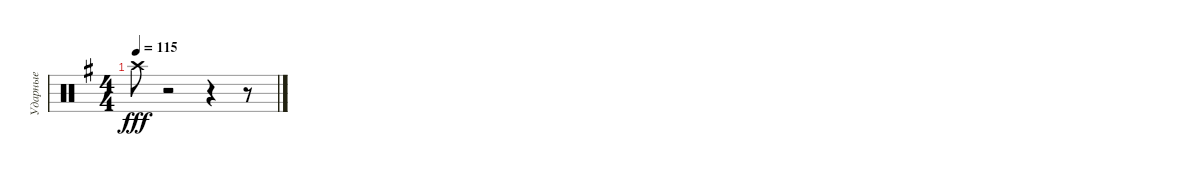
\track ("Ударные" "Ударные") {instrument percussion}
\staff {score}
\articulation defaults
\ts (4 4)
\tempo 115
\clef neutral
\ks g "Crash high (hit)".8{dy fff}
r.2 r.4 r.8
